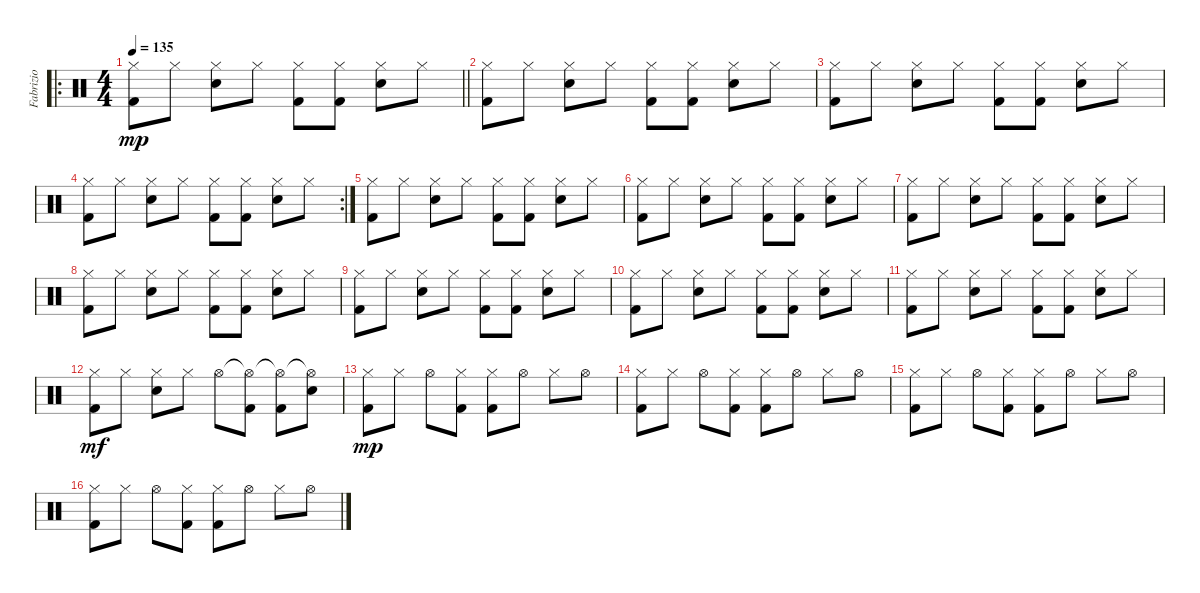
\track ("Fabrizio" "Fabrizio") {instrument percussion}
\staff {score}
\articulation defaults
\ro
\ts (4 4)
\tempo 135
\clef neutral
\barLineRight lightlight
\ks c
("Hi-Hat (closed)" "Kick (hit) 2").8{dy mp} "Hi-Hat (closed)".8 ("Hi-Hat (closed)" "Electric Snare (hit)").8 "Hi-Hat (closed)".8 ("Hi-Hat (closed)" "Kick (hit) 2").8 ("Hi-Hat (closed)" "Kick (hit) 2").8 ("Hi-Hat (closed)" "Electric Snare (hit)").8 "Hi-Hat (closed)".8 |
("Hi-Hat (closed)" "Kick (hit) 2").8 "Hi-Hat (closed)".8 ("Hi-Hat (closed)" "Electric Snare (hit)").8 "Hi-Hat (closed)".8 ("Hi-Hat (closed)" "Kick (hit) 2").8 ("Hi-Hat (closed)" "Kick (hit) 2").8 ("Hi-Hat (closed)" "Electric Snare (hit)").8 "Hi-Hat (closed)".8 |
("Hi-Hat (closed)" "Kick (hit) 2").8 "Hi-Hat (closed)".8 ("Hi-Hat (closed)" "Electric Snare (hit)").8 "Hi-Hat (closed)".8 ("Hi-Hat (closed)" "Kick (hit) 2").8 ("Hi-Hat (closed)" "Kick (hit) 2").8 ("Hi-Hat (closed)" "Electric Snare (hit)").8 "Hi-Hat (closed)".8 |
\rc 2
("Hi-Hat (closed)" "Kick (hit) 2").8 "Hi-Hat (closed)".8 ("Hi-Hat (closed)" "Electric Snare (hit)").8 "Hi-Hat (closed)".8 ("Hi-Hat (closed)" "Kick (hit) 2").8 ("Hi-Hat (closed)" "Kick (hit) 2").8 ("Hi-Hat (closed)" "Electric Snare (hit)").8 "Hi-Hat (closed)".8 |
("Hi-Hat (closed)" "Kick (hit) 2").8 "Hi-Hat (closed)".8 ("Hi-Hat (closed)" "Electric Snare (hit)").8 "Hi-Hat (closed)".8 ("Hi-Hat (closed)" "Kick (hit) 2").8 ("Hi-Hat (closed)" "Kick (hit) 2").8 ("Hi-Hat (closed)" "Electric Snare (hit)").8 "Hi-Hat (closed)".8 |
("Hi-Hat (closed)" "Kick (hit) 2").8 "Hi-Hat (closed)".8 ("Hi-Hat (closed)" "Electric Snare (hit)").8 "Hi-Hat (closed)".8 ("Hi-Hat (closed)" "Kick (hit) 2").8 ("Hi-Hat (closed)" "Kick (hit) 2").8 ("Hi-Hat (closed)" "Electric Snare (hit)").8 "Hi-Hat (closed)".8 |
("Hi-Hat (closed)" "Kick (hit) 2").8 "Hi-Hat (closed)".8 ("Hi-Hat (closed)" "Electric Snare (hit)").8 "Hi-Hat (closed)".8 ("Hi-Hat (closed)" "Kick (hit) 2").8 ("Hi-Hat (closed)" "Kick (hit) 2").8 ("Hi-Hat (closed)" "Electric Snare (hit)").8 "Hi-Hat (closed)".8 |
("Hi-Hat (closed)" "Kick (hit) 2").8 "Hi-Hat (closed)".8 ("Hi-Hat (closed)" "Electric Snare (hit)").8 "Hi-Hat (closed)".8 ("Hi-Hat (closed)" "Kick (hit) 2").8 ("Hi-Hat (closed)" "Kick (hit) 2").8 ("Hi-Hat (closed)" "Electric Snare (hit)").8 "Hi-Hat (closed)".8 |
("Hi-Hat (closed)" "Kick (hit) 2").8 "Hi-Hat (closed)".8 ("Hi-Hat (closed)" "Electric Snare (hit)").8 "Hi-Hat (closed)".8 ("Hi-Hat (closed)" "Kick (hit) 2").8 ("Hi-Hat (closed)" "Kick (hit) 2").8 ("Hi-Hat (closed)" "Electric Snare (hit)").8 "Hi-Hat (closed)".8 |
("Hi-Hat (closed)" "Kick (hit) 2").8 "Hi-Hat (closed)".8 ("Hi-Hat (closed)" "Electric Snare (hit)").8 "Hi-Hat (closed)".8 ("Hi-Hat (closed)" "Kick (hit) 2").8 ("Hi-Hat (closed)" "Kick (hit) 2").8 ("Hi-Hat (closed)" "Electric Snare (hit)").8 "Hi-Hat (closed)".8 |
("Hi-Hat (closed)" "Kick (hit) 2").8 "Hi-Hat (closed)".8 ("Hi-Hat (closed)" "Electric Snare (hit)").8 "Hi-Hat (closed)".8 ("Hi-Hat (closed)" "Kick (hit) 2").8 ("Hi-Hat (closed)" "Kick (hit) 2").8 ("Hi-Hat (closed)" "Electric Snare (hit)").8 "Hi-Hat (closed)".8 |
("Hi-Hat (closed)" "Kick (hit) 2").8{dy mf} "Hi-Hat (closed)".8 ("Hi-Hat (closed)" "Electric Snare (hit)").8 "Hi-Hat (closed)".8 "Hi-Hat (open)".8 ("Hi-Hat (open)"{t} "Kick (hit) 2").8 ("Hi-Hat (open)"{t} "Kick (hit) 2").8 ("Hi-Hat (open)"{t} "Electric Snare (hit)").8 |
("Hi-Hat (closed)" "Kick (hit) 2").8{dy mp} "Hi-Hat (closed)".8 "Hi-Hat (open)".8 ("Hi-Hat (closed)" "Kick (hit) 2").8 ("Hi-Hat (closed)" "Kick (hit) 2").8 "Hi-Hat (open)".8 "Hi-Hat (closed)".8 "Hi-Hat (open)".8 |
("Hi-Hat (closed)" "Kick (hit) 2").8 "Hi-Hat (closed)".8 "Hi-Hat (open)".8 ("Hi-Hat (closed)" "Kick (hit) 2").8 ("Hi-Hat (closed)" "Kick (hit) 2").8 "Hi-Hat (open)".8 "Hi-Hat (closed)".8 "Hi-Hat (open)".8 |
("Hi-Hat (closed)" "Kick (hit) 2").8 "Hi-Hat (closed)".8 "Hi-Hat (open)".8 ("Hi-Hat (closed)" "Kick (hit) 2").8 ("Hi-Hat (closed)" "Kick (hit) 2").8 "Hi-Hat (open)".8 "Hi-Hat (closed)".8 "Hi-Hat (open)".8 |
("Hi-Hat (closed)" "Kick (hit) 2").8 "Hi-Hat (closed)".8 "Hi-Hat (open)".8 ("Hi-Hat (closed)" "Kick (hit) 2").8 ("Hi-Hat (closed)" "Kick (hit) 2").8 "Hi-Hat (open)".8 "Hi-Hat (closed)".8 "Hi-Hat (open)".8
